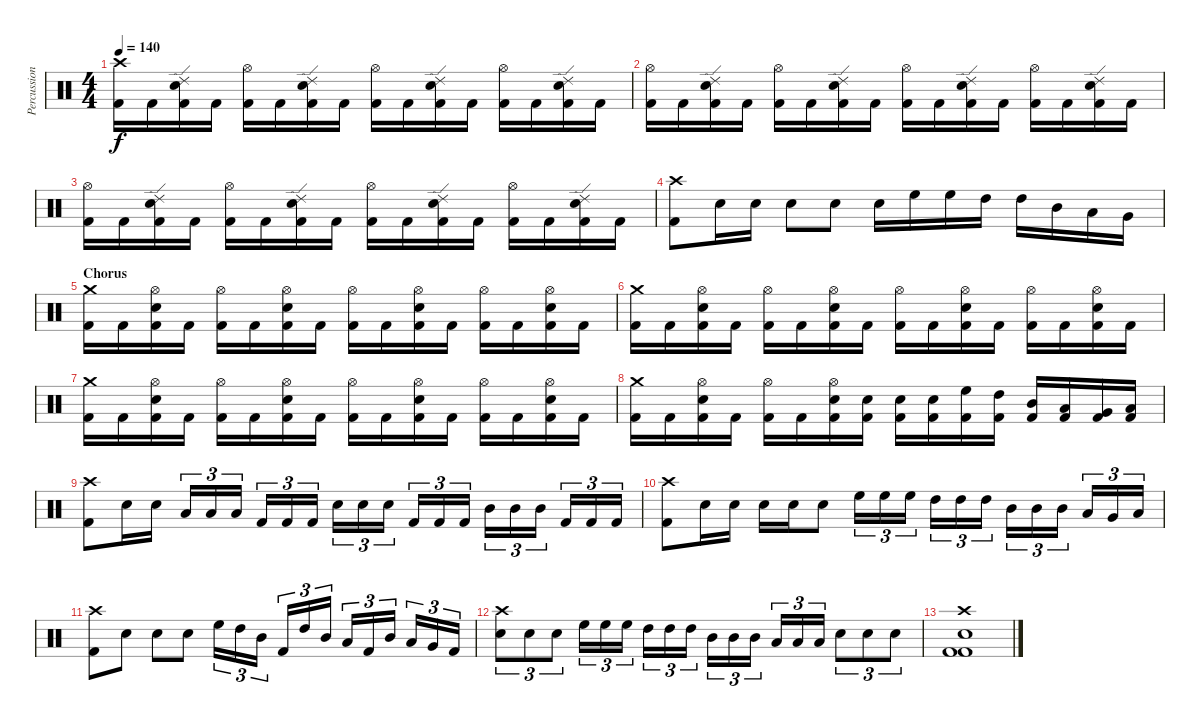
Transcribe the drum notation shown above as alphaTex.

\track ("Percussion" "Percussion") {instrument percussion}
\staff {score}
\articulation defaults
\ts (4 4)
\tempo 140
\clef neutral
\ks c
("Crash high (hit)" "Kick (hit) 2").16{dy f} "Kick (hit) 2".16 ("Ride (edge) 2" "Electric Snare (hit)" "Kick (hit) 2").16 "Kick (hit) 2".16 ("Hi-Hat (open)" "Kick (hit) 2").16 "Kick (hit) 2".16 ("Ride (edge) 2" "Electric Snare (hit)" "Kick (hit) 2").16 "Kick (hit) 2".16 ("Hi-Hat (open)" "Kick (hit) 2").16 "Kick (hit) 2".16 ("Ride (edge) 2" "Electric Snare (hit)" "Kick (hit) 2").16 "Kick (hit) 2".16 ("Hi-Hat (open)" "Kick (hit) 2").16 "Kick (hit) 2".16 ("Ride (edge) 2" "Electric Snare (hit)" "Kick (hit) 2").16 "Kick (hit) 2".16 |
("Hi-Hat (open)" "Kick (hit) 2").16 "Kick (hit) 2".16 ("Ride (edge) 2" "Electric Snare (hit)" "Kick (hit) 2").16 "Kick (hit) 2".16 ("Hi-Hat (open)" "Kick (hit) 2").16 "Kick (hit) 2".16 ("Ride (edge) 2" "Electric Snare (hit)" "Kick (hit) 2").16 "Kick (hit) 2".16 ("Hi-Hat (open)" "Kick (hit) 2").16 "Kick (hit) 2".16 ("Ride (edge) 2" "Electric Snare (hit)" "Kick (hit) 2").16 "Kick (hit) 2".16 ("Hi-Hat (open)" "Kick (hit) 2").16 "Kick (hit) 2".16 ("Ride (edge) 2" "Electric Snare (hit)" "Kick (hit) 2").16 "Kick (hit) 2".16 |
("Hi-Hat (open)" "Kick (hit) 2").16 "Kick (hit) 2".16 ("Ride (edge) 2" "Electric Snare (hit)" "Kick (hit) 2").16 "Kick (hit) 2".16 ("Hi-Hat (open)" "Kick (hit) 2").16 "Kick (hit) 2".16 ("Ride (edge) 2" "Electric Snare (hit)" "Kick (hit) 2").16 "Kick (hit) 2".16 ("Hi-Hat (open)" "Kick (hit) 2").16 "Kick (hit) 2".16 ("Ride (edge) 2" "Electric Snare (hit)" "Kick (hit) 2").16 "Kick (hit) 2".16 ("Hi-Hat (open)" "Kick (hit) 2").16 "Kick (hit) 2".16 ("Ride (edge) 2" "Electric Snare (hit)" "Kick (hit) 2").16 "Kick (hit) 2".16 |
("Crash high (hit)" "Kick (hit) 2").8 "Electric Snare (hit)".16 "Electric Snare (hit)".16 "Electric Snare (hit)".8 "Electric Snare (hit)".8 "Electric Snare (hit)".16 "High Floor Tom (hit)".16 "High Floor Tom (hit)".16 "High Tom (hit)".16 "High Tom (hit)".16 "Mid Tom (hit)".16 "Low Tom (hit)".16 "Very Low Tom (hit)".16 |
\section ("" "Chorus")
("Crash medium (hit)" "Kick (hit) 2").16 "Kick (hit) 2".16 ("Hi-Hat (open)" "Electric Snare (hit)" "Kick (hit) 2").16 "Kick (hit) 2".16 ("Hi-Hat (open)" "Kick (hit) 2").16 "Kick (hit) 2".16 ("Hi-Hat (open)" "Electric Snare (hit)" "Kick (hit) 2").16 "Kick (hit) 2".16 ("Hi-Hat (open)" "Kick (hit) 2").16 "Kick (hit) 2".16 ("Hi-Hat (open)" "Electric Snare (hit)" "Kick (hit) 2").16 "Kick (hit) 2".16 ("Hi-Hat (open)" "Kick (hit) 2").16 "Kick (hit) 2".16 ("Hi-Hat (open)" "Electric Snare (hit)" "Kick (hit) 2").16 "Kick (hit) 2".16 |
("Crash medium (hit)" "Kick (hit) 2").16 "Kick (hit) 2".16 ("Hi-Hat (open)" "Electric Snare (hit)" "Kick (hit) 2").16 "Kick (hit) 2".16 ("Hi-Hat (open)" "Kick (hit) 2").16 "Kick (hit) 2".16 ("Hi-Hat (open)" "Electric Snare (hit)" "Kick (hit) 2").16 "Kick (hit) 2".16 ("Hi-Hat (open)" "Kick (hit) 2").16 "Kick (hit) 2".16 ("Hi-Hat (open)" "Electric Snare (hit)" "Kick (hit) 2").16 "Kick (hit) 2".16 ("Hi-Hat (open)" "Kick (hit) 2").16 "Kick (hit) 2".16 ("Hi-Hat (open)" "Electric Snare (hit)" "Kick (hit) 2").16 "Kick (hit) 2".16 |
("Crash medium (hit)" "Kick (hit) 2").16 "Kick (hit) 2".16 ("Hi-Hat (open)" "Electric Snare (hit)" "Kick (hit) 2").16 "Kick (hit) 2".16 ("Hi-Hat (open)" "Kick (hit) 2").16 "Kick (hit) 2".16 ("Hi-Hat (open)" "Electric Snare (hit)" "Kick (hit) 2").16 "Kick (hit) 2".16 ("Hi-Hat (open)" "Kick (hit) 2").16 "Kick (hit) 2".16 ("Hi-Hat (open)" "Electric Snare (hit)" "Kick (hit) 2").16 "Kick (hit) 2".16 ("Hi-Hat (open)" "Kick (hit) 2").16 "Kick (hit) 2".16 ("Hi-Hat (open)" "Electric Snare (hit)" "Kick (hit) 2").16 "Kick (hit) 2".16 |
("Crash medium (hit)" "Kick (hit) 2").16 "Kick (hit) 2".16 ("Hi-Hat (open)" "Electric Snare (hit)" "Kick (hit) 2").16 "Kick (hit) 2".16 ("Hi-Hat (open)" "Kick (hit) 2").16 "Kick (hit) 2".16 ("Hi-Hat (open)" "Electric Snare (hit)" "Kick (hit) 2").16 ("Electric Snare (hit)" "Kick (hit) 2").16 ("Electric Snare (hit)" "Kick (hit) 2").16 ("Electric Snare (hit)" "Kick (hit) 2").16 ("High Floor Tom (hit)" "Kick (hit) 2").16 ("High Tom (hit)" "Kick (hit) 2").16 ("Mid Tom (hit)" "Kick (hit) 2").16 ("Low Tom (hit)" "Kick (hit) 2").16 ("Very Low Tom (hit)" "Kick (hit) 2").16 ("Low Floor Tom (hit)" "Kick (hit) 2").16 |
("Crash high (hit)" "Kick (hit) 2").8 "Electric Snare (hit)".16 "Electric Snare (hit)".16 "Low Tom (hit)".16{tu (3 2)} "Low Tom (hit)".16{tu (3 2)} "Low Tom (hit)".16{tu (3 2)} "Kick (hit) 2".16{tu (3 2)} "Kick (hit) 2".16{tu (3 2)} "Kick (hit) 2".16{tu (3 2)} "Electric Snare (hit)".16{tu (3 2)} "Electric Snare (hit)".16{tu (3 2)} "Electric Snare (hit)".16{tu (3 2)} "Kick (hit) 2".16{tu (3 2)} "Kick (hit) 2".16{tu (3 2)} "Kick (hit) 2".16{tu (3 2)} "Mid Tom (hit)".16{tu (3 2)} "Mid Tom (hit)".16{tu (3 2)} "Mid Tom (hit)".16{tu (3 2)} "Kick (hit) 2".16{tu (3 2)} "Kick (hit) 2".16{tu (3 2)} "Kick (hit) 2".16{tu (3 2)} |
("Crash high (hit)" "Kick (hit) 2").8 "Electric Snare (hit)".16 "Electric Snare (hit)".16 "Electric Snare (hit)".16 "Electric Snare (hit)".16 "Electric Snare (hit)".8 "High Floor Tom (hit)".16{tu (3 2)} "High Floor Tom (hit)".16{tu (3 2)} "High Floor Tom (hit)".16{tu (3 2)} "High Tom (hit)".16{tu (3 2)} "High Tom (hit)".16{tu (3 2)} "High Tom (hit)".16{tu (3 2)} "Mid Tom (hit)".16{tu (3 2)} "Mid Tom (hit)".16{tu (3 2)} "Mid Tom (hit)".16{tu (3 2)} "Low Tom (hit)".16{tu (3 2)} "Very Low Tom (hit)".16{tu (3 2)} "Low Floor Tom (hit)".16{tu (3 2)} |
("Crash high (hit)" "Kick (hit) 2").8 "Electric Snare (hit)".8 "Electric Snare (hit)".8 "Electric Snare (hit)".8 "High Floor Tom (hit)".16{tu (3 2)} "High Tom (hit)".16{tu (3 2)} "Mid Tom (hit)".16{tu (3 2)} "Kick (hit) 2".16{tu (3 2)} "High Tom (hit)".16{tu (3 2)} "Mid Tom (hit)".16{tu (3 2)} "Low Tom (hit)".16{tu (3 2)} "Kick (hit) 2".16{tu (3 2)} "Mid Tom (hit)".16{tu (3 2)} "Low Tom (hit)".16{tu (3 2)} "Very Low Tom (hit)".16{tu (3 2)} "Kick (hit) 2".16{tu (3 2)} |
("Crash high (hit)" "Electric Snare (hit)").8{tu (3 2)} "Electric Snare (hit)".8{tu (3 2)} "Electric Snare (hit)".8{tu (3 2)} "High Floor Tom (hit)".16{tu (3 2)} "High Floor Tom (hit)".16{tu (3 2)} "High Floor Tom (hit)".16{tu (3 2)} "High Tom (hit)".16{tu (3 2)} "High Tom (hit)".16{tu (3 2)} "High Tom (hit)".16{tu (3 2)} "Mid Tom (hit)".16{tu (3 2)} "Mid Tom (hit)".16{tu (3 2)} "Mid Tom (hit)".16{tu (3 2)} "Low Tom (hit)".16{tu (3 2)} "Low Tom (hit)".16{tu (3 2)} "Low Tom (hit)".16{tu (3 2)} "Electric Snare (hit)".8{tu (3 2)} "Electric Snare (hit)".8{tu (3 2)} "Electric Snare (hit)".8{tu (3 2)} |
("Crash high (hit)" "Kick (hit) 2" "Electric Snare (hit)" "Kick (hit) 2").1
